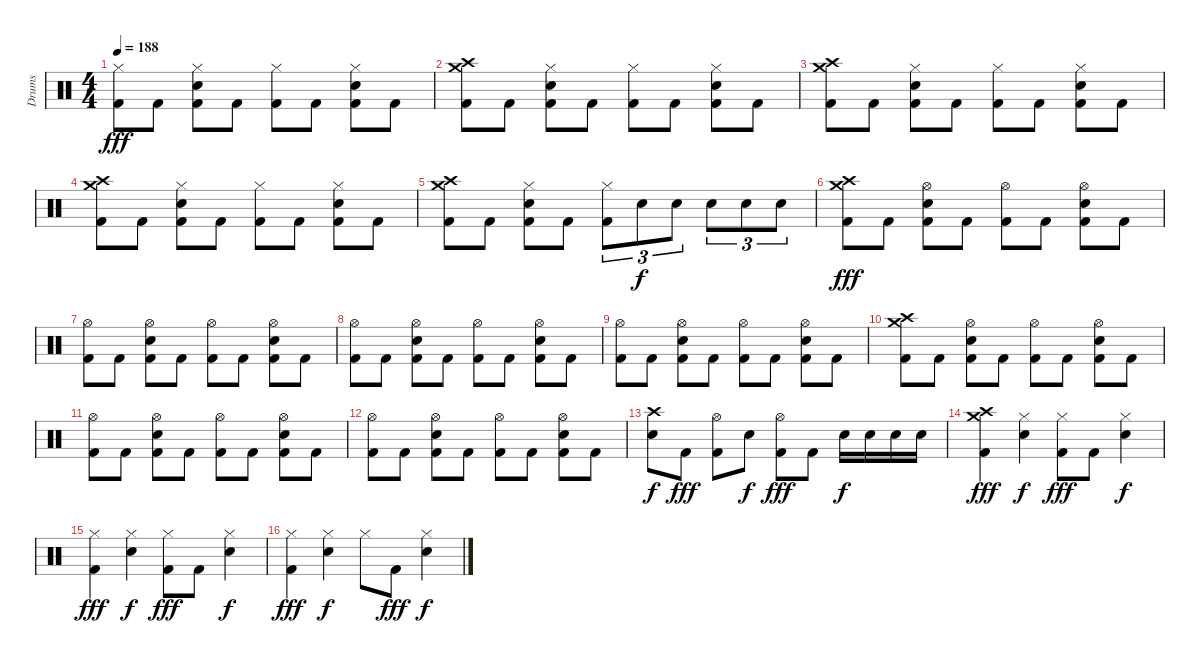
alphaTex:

\track ("Drums" "Drums") {instrument percussion}
\staff {score}
\articulation defaults
\ts (4 4)
\tempo 188
\clef neutral
\ks c
("Hi-Hat (closed)" "Kick (hit) 2").8{dy fff} "Kick (hit) 2".8 ("Hi-Hat (closed)" "Electric Snare (hit)" "Kick (hit) 2").8 "Kick (hit) 2".8 ("Hi-Hat (closed)" "Kick (hit) 2").8 "Kick (hit) 2".8 ("Hi-Hat (closed)" "Electric Snare (hit)" "Kick (hit) 2").8 "Kick (hit) 2".8 |
("Crash high (hit)" "Crash medium (hit)" "Kick (hit) 2").8 "Kick (hit) 2".8 ("Hi-Hat (closed)" "Electric Snare (hit)" "Kick (hit) 2").8 "Kick (hit) 2".8 ("Hi-Hat (closed)" "Kick (hit) 2").8 "Kick (hit) 2".8 ("Hi-Hat (closed)" "Electric Snare (hit)" "Kick (hit) 2").8 "Kick (hit) 2".8 |
("Crash high (hit)" "Crash medium (hit)" "Kick (hit) 2").8 "Kick (hit) 2".8 ("Hi-Hat (closed)" "Electric Snare (hit)" "Kick (hit) 2").8 "Kick (hit) 2".8 ("Hi-Hat (closed)" "Kick (hit) 2").8 "Kick (hit) 2".8 ("Hi-Hat (closed)" "Electric Snare (hit)" "Kick (hit) 2").8 "Kick (hit) 2".8 |
("Crash high (hit)" "Crash medium (hit)" "Kick (hit) 2").8 "Kick (hit) 2".8 ("Hi-Hat (closed)" "Electric Snare (hit)" "Kick (hit) 2").8 "Kick (hit) 2".8 ("Hi-Hat (closed)" "Kick (hit) 2").8 "Kick (hit) 2".8 ("Hi-Hat (closed)" "Electric Snare (hit)" "Kick (hit) 2").8 "Kick (hit) 2".8 |
("Crash high (hit)" "Crash medium (hit)" "Kick (hit) 2").8 "Kick (hit) 2".8 ("Hi-Hat (closed)" "Electric Snare (hit)" "Kick (hit) 2").8 "Kick (hit) 2".8 ("Hi-Hat (closed)" "Kick (hit) 2").8{tu (3 2)} "Electric Snare (hit)".8{tu (3 2) dy f} "Electric Snare (hit)".8{tu (3 2)} "Electric Snare (hit)".8{tu (3 2)} "Electric Snare (hit)".8{tu (3 2)} "Electric Snare (hit)".8{tu (3 2)} |
("Crash high (hit)" "Crash medium (hit)" "Kick (hit) 2").8{dy fff} "Kick (hit) 2".8 ("Hi-Hat (open)" "Electric Snare (hit)" "Kick (hit) 2").8 "Kick (hit) 2".8 ("Hi-Hat (open)" "Kick (hit) 2").8 "Kick (hit) 2".8 ("Hi-Hat (open)" "Electric Snare (hit)" "Kick (hit) 2").8 "Kick (hit) 2".8 |
("Hi-Hat (open)" "Kick (hit) 2").8 "Kick (hit) 2".8 ("Hi-Hat (open)" "Electric Snare (hit)" "Kick (hit) 2").8 "Kick (hit) 2".8 ("Hi-Hat (open)" "Kick (hit) 2").8 "Kick (hit) 2".8 ("Hi-Hat (open)" "Electric Snare (hit)" "Kick (hit) 2").8 "Kick (hit) 2".8 |
("Hi-Hat (open)" "Kick (hit) 2").8 "Kick (hit) 2".8 ("Hi-Hat (open)" "Electric Snare (hit)" "Kick (hit) 2").8 "Kick (hit) 2".8 ("Hi-Hat (open)" "Kick (hit) 2").8 "Kick (hit) 2".8 ("Hi-Hat (open)" "Electric Snare (hit)" "Kick (hit) 2").8 "Kick (hit) 2".8 |
("Hi-Hat (open)" "Kick (hit) 2").8 "Kick (hit) 2".8 ("Hi-Hat (open)" "Electric Snare (hit)" "Kick (hit) 2").8 "Kick (hit) 2".8 ("Hi-Hat (open)" "Kick (hit) 2").8 "Kick (hit) 2".8 ("Hi-Hat (open)" "Electric Snare (hit)" "Kick (hit) 2").8 "Kick (hit) 2".8 |
("Crash high (hit)" "Crash medium (hit)" "Kick (hit) 2").8 "Kick (hit) 2".8 ("Hi-Hat (open)" "Electric Snare (hit)" "Kick (hit) 2").8 "Kick (hit) 2".8 ("Hi-Hat (open)" "Kick (hit) 2").8 "Kick (hit) 2".8 ("Hi-Hat (open)" "Electric Snare (hit)" "Kick (hit) 2").8 "Kick (hit) 2".8 |
("Hi-Hat (open)" "Kick (hit) 2").8 "Kick (hit) 2".8 ("Hi-Hat (open)" "Electric Snare (hit)" "Kick (hit) 2").8 "Kick (hit) 2".8 ("Hi-Hat (open)" "Kick (hit) 2").8 "Kick (hit) 2".8 ("Hi-Hat (open)" "Electric Snare (hit)" "Kick (hit) 2").8 "Kick (hit) 2".8 |
("Hi-Hat (open)" "Kick (hit) 2").8 "Kick (hit) 2".8 ("Hi-Hat (open)" "Electric Snare (hit)" "Kick (hit) 2").8 "Kick (hit) 2".8 ("Hi-Hat (open)" "Kick (hit) 2").8 "Kick (hit) 2".8 ("Hi-Hat (open)" "Electric Snare (hit)" "Kick (hit) 2").8 "Kick (hit) 2".8 |
("Crash high (hit)" "Electric Snare (hit)").8{dy f} "Kick (hit) 2".8{dy fff} ("Hi-Hat (open)" "Kick (hit) 2").8 "Electric Snare (hit)".8{dy f} ("Hi-Hat (open)" "Kick (hit) 2").8{dy fff} "Kick (hit) 2".8 "Electric Snare (hit)".16{dy f} "Electric Snare (hit)".16 "Electric Snare (hit)".16 "Electric Snare (hit)".16 |
("Crash medium (hit)" "Crash high (hit)" "Kick (hit) 2").4{dy fff} ("Hi-Hat (closed)" "Electric Snare (hit)").4{dy f} ("Hi-Hat (closed)" "Kick (hit) 2").8{dy fff} "Kick (hit) 2".8 ("Hi-Hat (closed)" "Electric Snare (hit)").4{dy f} |
("Hi-Hat (closed)" "Kick (hit) 2").4{dy fff} ("Hi-Hat (closed)" "Electric Snare (hit)").4{dy f} ("Hi-Hat (closed)" "Kick (hit) 2").8{dy fff} "Kick (hit) 2".8 ("Hi-Hat (closed)" "Electric Snare (hit)").4{dy f} |
("Hi-Hat (closed)" "Kick (hit) 2").4{dy fff} ("Hi-Hat (closed)" "Electric Snare (hit)").4{dy f} "Hi-Hat (closed)".8 "Kick (hit) 2".8{dy fff} ("Hi-Hat (closed)" "Electric Snare (hit)").4{dy f}
